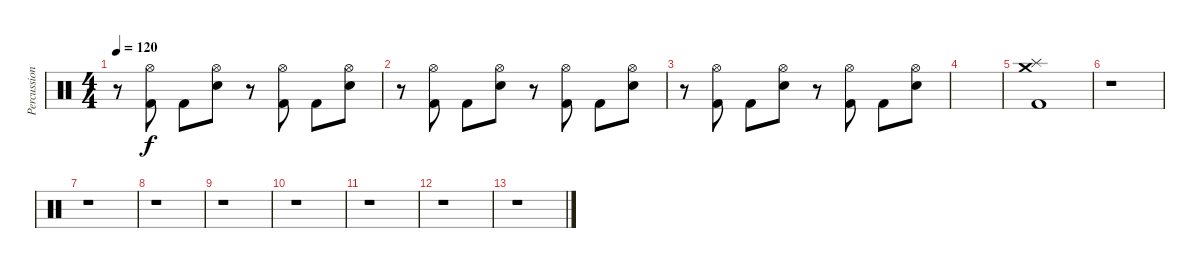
\track ("Percussion" "Percussion") {solo instrument percussion}
\staff {score}
\articulation defaults
\ts (4 4)
\tempo 120
\clef neutral
\ks c
r.8{dy f} ("Hi-Hat (open)" "Kick (hit) 2").8 "Kick (hit) 2".8 ("Hi-Hat (open)" "Snare (hit) 2").8 r.8 ("Hi-Hat (open)" "Kick (hit) 2").8 "Kick (hit) 2".8 ("Hi-Hat (open)" "Snare (hit) 2").8 |
r.8 ("Hi-Hat (open)" "Kick (hit) 2").8 "Kick (hit) 2".8 ("Hi-Hat (open)" "Snare (hit) 2").8 r.8 ("Hi-Hat (open)" "Kick (hit) 2").8 "Kick (hit) 2".8 ("Hi-Hat (open)" "Snare (hit) 2").8 |
r.8 ("Hi-Hat (open)" "Kick (hit) 2").8 "Kick (hit) 2".8 ("Hi-Hat (open)" "Snare (hit) 2").8 r.8 ("Hi-Hat (open)" "Kick (hit) 2").8 "Kick (hit) 2".8 ("Hi-Hat (open)" "Snare (hit) 2").8 |
|
("Kick (hit) 2" "Crash medium (hit)" "Splash (hit)").1 |
r.1 |
r.1 |
r.1 |
r.1 |
r.1 |
r.1 |
r.1 |
r.1
